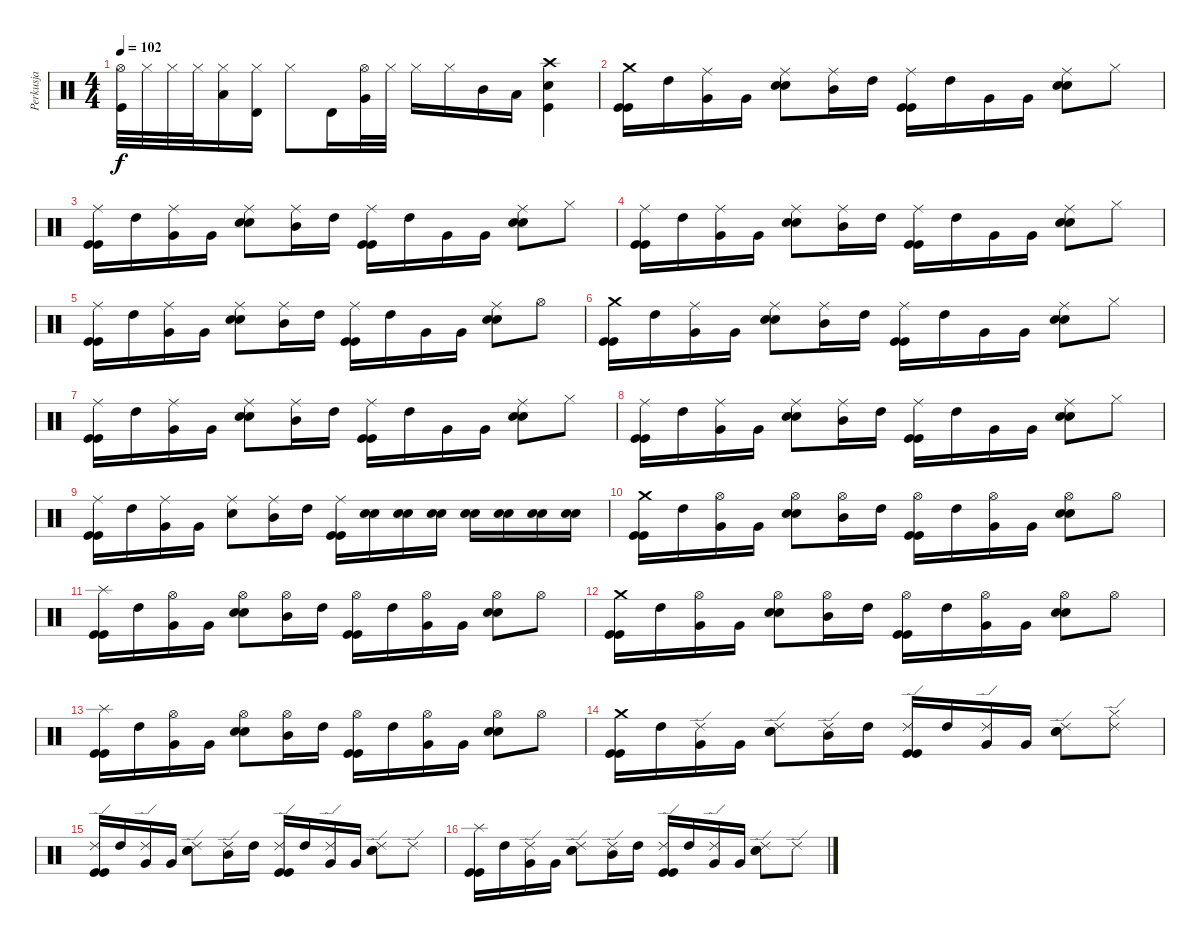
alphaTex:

\track ("Perkusja" "Perkusja") {instrument percussion}
\staff {score}
\articulation defaults
\ts (4 4)
\tempo 102
\clef neutral
\ks c
("Kick (hit)" "Hi-Hat (open)").32{dy f} "Hi-Hat (closed)".32 "Hi-Hat (closed)".32 "Hi-Hat (closed)".32 ("Low Floor Tom (hit)" "Hi-Hat (closed)").16 ("Timbale high (hit)" "Hi-Hat (closed)").16 "Hi-Hat (closed)".8 "Timbale high (hit)".16 ("Very Low Tom (hit)" "Hi-Hat (open)").32 "Hi-Hat (closed)".32 "Hi-Hat (closed)".16 "Hi-Hat (closed)".16 "Mid Tom (hit)".16 "Low Tom (hit)".16 ("Kick (hit)" "Electric Snare (hit)" "Crash high (hit)").4 |
("Kick (hit)" "Kick (hit)" "Crash medium (hit)").16 "High Tom (hit)".16 ("Very Low Tom (hit)" "Ride (middle)").16 "Very Low Tom (hit)".16 ("Electric Snare (hit)" "Electric Snare (hit)" "Ride (middle)").8 ("Mid Tom (hit)" "Ride (middle)").16 "High Tom (hit)".16 ("Kick (hit)" "Kick (hit)" "Ride (middle)").16 "High Tom (hit)".16 "Very Low Tom (hit)".16 "Very Low Tom (hit)".16 ("Electric Snare (hit)" "Electric Snare (hit)" "Ride (middle)").8 "Hi-Hat (closed)".8 |
("Kick (hit)" "Kick (hit)" "Ride (middle)").16 "High Tom (hit)".16 ("Very Low Tom (hit)" "Ride (middle)").16 "Very Low Tom (hit)".16 ("Electric Snare (hit)" "Electric Snare (hit)" "Ride (middle)").8 ("Mid Tom (hit)" "Ride (middle)").16 "High Tom (hit)".16 ("Kick (hit)" "Kick (hit)" "Ride (middle)").16 "High Tom (hit)".16 "Very Low Tom (hit)".16 "Very Low Tom (hit)".16 ("Electric Snare (hit)" "Electric Snare (hit)" "Ride (middle)").8 "Hi-Hat (closed)".8 |
("Kick (hit)" "Kick (hit)" "Ride (middle)").16 "High Tom (hit)".16 ("Very Low Tom (hit)" "Ride (middle)").16 "Very Low Tom (hit)".16 ("Electric Snare (hit)" "Electric Snare (hit)" "Ride (middle)").8 ("Mid Tom (hit)" "Ride (middle)").16 "High Tom (hit)".16 ("Kick (hit)" "Kick (hit)" "Ride (middle)").16 "High Tom (hit)".16 "Very Low Tom (hit)".16 "Very Low Tom (hit)".16 ("Electric Snare (hit)" "Electric Snare (hit)" "Ride (middle)").8 "Hi-Hat (closed)".8 |
("Kick (hit)" "Kick (hit)" "Ride (middle)").16 "High Tom (hit)".16 ("Very Low Tom (hit)" "Ride (middle)").16 "Very Low Tom (hit)".16 ("Electric Snare (hit)" "Electric Snare (hit)" "Ride (middle)").8 ("Mid Tom (hit)" "Ride (middle)").16 "High Tom (hit)".16 ("Kick (hit)" "Kick (hit)" "Ride (middle)").16 "High Tom (hit)".16 "Very Low Tom (hit)".16 "Very Low Tom (hit)".16 ("Electric Snare (hit)" "Electric Snare (hit)" "Ride (middle)").8 "Hi-Hat (open)".8 |
("Kick (hit)" "Kick (hit)" "Crash medium (hit)").16 "High Tom (hit)".16 ("Very Low Tom (hit)" "Ride (middle)").16 "Very Low Tom (hit)".16 ("Electric Snare (hit)" "Electric Snare (hit)" "Ride (middle)").8 ("Mid Tom (hit)" "Ride (middle)").16 "High Tom (hit)".16 ("Kick (hit)" "Kick (hit)" "Ride (middle)").16 "High Tom (hit)".16 "Very Low Tom (hit)".16 "Very Low Tom (hit)".16 ("Electric Snare (hit)" "Electric Snare (hit)" "Ride (middle)").8 "Hi-Hat (closed)".8 |
("Kick (hit)" "Kick (hit)" "Ride (middle)").16 "High Tom (hit)".16 ("Very Low Tom (hit)" "Ride (middle)").16 "Very Low Tom (hit)".16 ("Electric Snare (hit)" "Electric Snare (hit)" "Ride (middle)").8 ("Mid Tom (hit)" "Ride (middle)").16 "High Tom (hit)".16 ("Kick (hit)" "Kick (hit)" "Ride (middle)").16 "High Tom (hit)".16 "Very Low Tom (hit)".16 "Very Low Tom (hit)".16 ("Electric Snare (hit)" "Electric Snare (hit)" "Ride (middle)").8 "Hi-Hat (closed)".8 |
("Kick (hit)" "Kick (hit)" "Ride (middle)").16 "High Tom (hit)".16 ("Very Low Tom (hit)" "Ride (middle)").16 "Very Low Tom (hit)".16 ("Electric Snare (hit)" "Electric Snare (hit)" "Ride (middle)").8 ("Mid Tom (hit)" "Ride (middle)").16 "High Tom (hit)".16 ("Kick (hit)" "Kick (hit)" "Ride (middle)").16 "High Tom (hit)".16 "Very Low Tom (hit)".16 "Very Low Tom (hit)".16 ("Electric Snare (hit)" "Electric Snare (hit)" "Ride (middle)").8 "Hi-Hat (closed)".8 |
("Kick (hit)" "Kick (hit)" "Ride (middle)").16 "High Tom (hit)".16 ("Very Low Tom (hit)" "Ride (middle)").16 "Very Low Tom (hit)".16 ("Electric Snare (hit)" "Ride (middle)").8 ("Mid Tom (hit)" "Ride (middle)").16 "High Tom (hit)".16 ("Kick (hit)" "Kick (hit)" "Ride (middle)").16 ("Electric Snare (hit)" "Electric Snare (hit)").16 ("Electric Snare (hit)" "Electric Snare (hit)").16 ("Electric Snare (hit)" "Electric Snare (hit)").16 ("Electric Snare (hit)" "Electric Snare (hit)").16 ("Electric Snare (hit)" "Electric Snare (hit)").16 ("Electric Snare (hit)" "Electric Snare (hit)").16 ("Electric Snare (hit)" "Electric Snare (hit)").16 |
("Kick (hit)" "Kick (hit)" "Crash medium (hit)").16 "High Tom (hit)".16 ("Very Low Tom (hit)" "Hi-Hat (open)").16 "Very Low Tom (hit)".16 ("Electric Snare (hit)" "Electric Snare (hit)" "Hi-Hat (open)").8 ("Mid Tom (hit)" "Hi-Hat (open)").16 "High Tom (hit)".16 ("Kick (hit)" "Kick (hit)" "Hi-Hat (open)").16 "High Tom (hit)".16 ("Very Low Tom (hit)" "Hi-Hat (open)").16 "Very Low Tom (hit)".16 ("Electric Snare (hit)" "Electric Snare (hit)" "Hi-Hat (open)").8 "Hi-Hat (open)".8 |
("Kick (hit)" "Kick (hit)" "Splash (hit)").16 "High Tom (hit)".16 ("Very Low Tom (hit)" "Hi-Hat (open)").16 "Very Low Tom (hit)".16 ("Electric Snare (hit)" "Electric Snare (hit)" "Hi-Hat (open)").8 ("Mid Tom (hit)" "Hi-Hat (open)").16 "High Tom (hit)".16 ("Kick (hit)" "Kick (hit)" "Hi-Hat (open)").16 "High Tom (hit)".16 ("Very Low Tom (hit)" "Hi-Hat (open)").16 "Very Low Tom (hit)".16 ("Electric Snare (hit)" "Electric Snare (hit)" "Hi-Hat (open)").8 "Hi-Hat (open)".8 |
("Kick (hit)" "Kick (hit)" "Crash medium (hit)").16 "High Tom (hit)".16 ("Very Low Tom (hit)" "Hi-Hat (open)").16 "Very Low Tom (hit)".16 ("Electric Snare (hit)" "Electric Snare (hit)" "Hi-Hat (open)").8 ("Mid Tom (hit)" "Hi-Hat (open)").16 "High Tom (hit)".16 ("Kick (hit)" "Kick (hit)" "Hi-Hat (open)").16 "High Tom (hit)".16 ("Very Low Tom (hit)" "Hi-Hat (open)").16 "Very Low Tom (hit)".16 ("Electric Snare (hit)" "Electric Snare (hit)" "Hi-Hat (open)").8 "Hi-Hat (open)".8 |
("Kick (hit)" "Kick (hit)" "Splash (hit)").16 "High Tom (hit)".16 ("Very Low Tom (hit)" "Hi-Hat (open)").16 "Very Low Tom (hit)".16 ("Electric Snare (hit)" "Electric Snare (hit)" "Hi-Hat (open)").8 ("Mid Tom (hit)" "Hi-Hat (open)").16 "High Tom (hit)".16 ("Kick (hit)" "Kick (hit)" "Hi-Hat (open)").16 "High Tom (hit)".16 ("Very Low Tom (hit)" "Hi-Hat (open)").16 "Very Low Tom (hit)".16 ("Electric Snare (hit)" "Electric Snare (hit)" "Hi-Hat (open)").8 "Hi-Hat (open)".8 |
("Kick (hit)" "Kick (hit)" "Crash medium (hit)").16 "High Tom (hit)".16 ("Very Low Tom (hit)" "Ride (edge) 2").16 "Very Low Tom (hit)".16 ("Electric Snare (hit)" "Electric Snare (hit)" "Ride (edge) 2").8 ("Mid Tom (hit)" "Ride (edge) 2").16 "High Tom (hit)".16 ("Kick (hit)" "Kick (hit)" "Ride (edge) 2").16 "High Tom (hit)".16 ("Very Low Tom (hit)" "Ride (edge) 2").16 "Very Low Tom (hit)".16 ("Electric Snare (hit)" "Electric Snare (hit)" "Ride (edge) 2").8 ("Hi-Hat (closed)" "Ride (edge) 2").8 |
("Kick (hit)" "Kick (hit)" "Ride (edge) 2").16 "High Tom (hit)".16 ("Very Low Tom (hit)" "Ride (edge) 2").16 "Very Low Tom (hit)".16 ("Electric Snare (hit)" "Electric Snare (hit)" "Ride (edge) 2").8 ("Mid Tom (hit)" "Ride (edge) 2").16 "High Tom (hit)".16 ("Kick (hit)" "Kick (hit)" "Ride (edge) 2").16 "High Tom (hit)".16 ("Very Low Tom (hit)" "Ride (edge) 2").16 "Very Low Tom (hit)".16 ("Electric Snare (hit)" "Electric Snare (hit)" "Ride (edge) 2").8 "Ride (edge) 2".8 |
("Kick (hit)" "Kick (hit)" "Splash (hit)").16 "High Tom (hit)".16 ("Very Low Tom (hit)" "Ride (edge) 2").16 "Very Low Tom (hit)".16 ("Electric Snare (hit)" "Electric Snare (hit)" "Ride (edge) 2").8 ("Mid Tom (hit)" "Ride (edge) 2").16 "High Tom (hit)".16 ("Kick (hit)" "Kick (hit)" "Ride (edge) 2").16 "High Tom (hit)".16 ("Very Low Tom (hit)" "Ride (edge) 2").16 "Very Low Tom (hit)".16 ("Electric Snare (hit)" "Electric Snare (hit)" "Ride (edge) 2").8 "Ride (edge) 2".8
